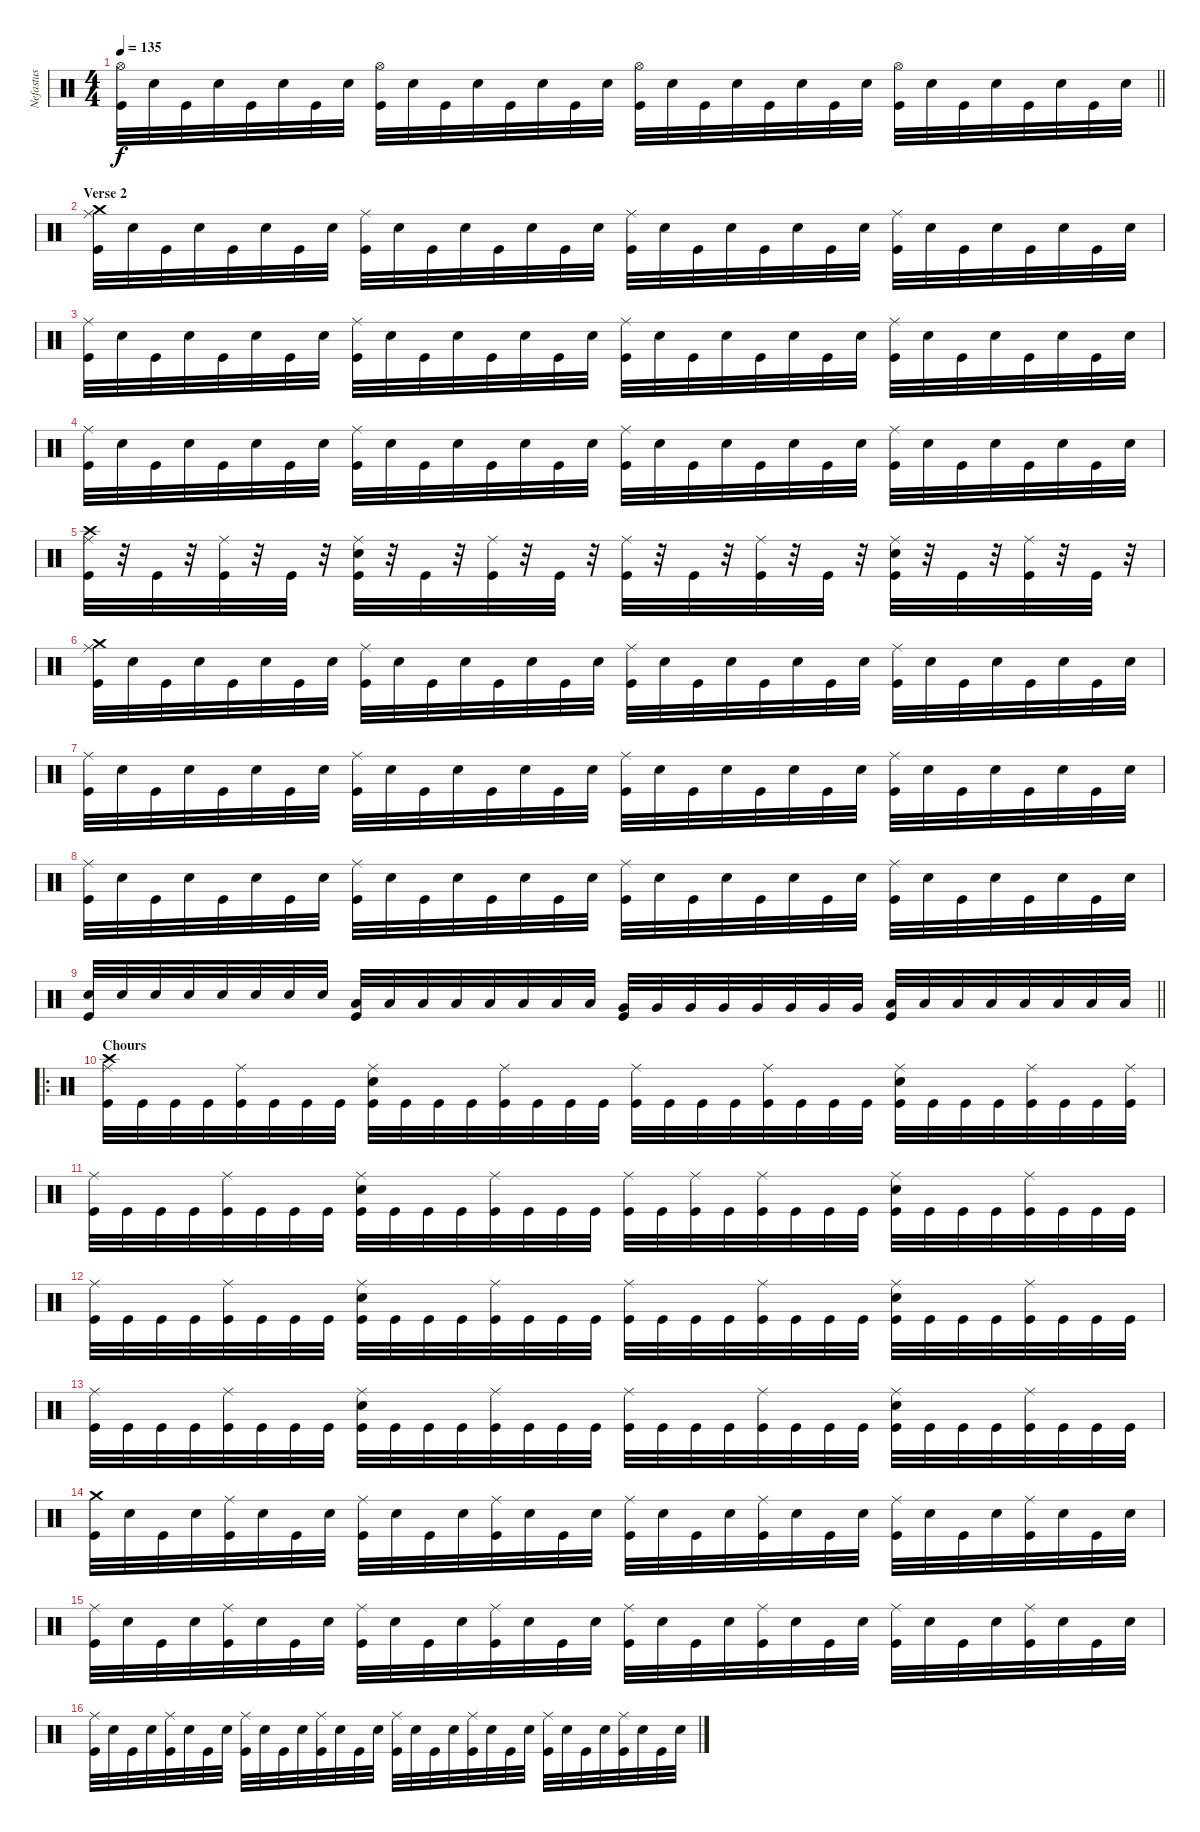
\track ("Nefastus" "Nefastus") {instrument percussion}
\staff {score}
\articulation defaults
\ts (4 4)
\tempo 135
\clef neutral
\barLineRight lightlight
\ks c
("Hi-Hat (open)" "Kick (hit)").32{dy f} "Electric Snare (hit)".32 "Kick (hit)".32 "Electric Snare (hit)".32 "Kick (hit)".32 "Electric Snare (hit)".32 "Kick (hit)".32 "Electric Snare (hit)".32 ("Hi-Hat (open)" "Kick (hit)").32 "Electric Snare (hit)".32 "Kick (hit)".32 "Electric Snare (hit)".32 "Kick (hit)".32 "Electric Snare (hit)".32 "Kick (hit)".32 "Electric Snare (hit)".32 ("Hi-Hat (open)" "Kick (hit)").32 "Electric Snare (hit)".32 "Kick (hit)".32 "Electric Snare (hit)".32 "Kick (hit)".32 "Electric Snare (hit)".32 "Kick (hit)".32 "Electric Snare (hit)".32 ("Hi-Hat (open)" "Kick (hit)").32 "Electric Snare (hit)".32 "Kick (hit)".32 "Electric Snare (hit)".32 "Kick (hit)".32 "Electric Snare (hit)".32 "Kick (hit)".32 "Electric Snare (hit)".32 |
\section ("" "Verse 2")
("Crash medium (hit)" "Ride (middle)" "Kick (hit)").32 "Electric Snare (hit)".32 "Kick (hit)".32 "Electric Snare (hit)".32 "Kick (hit)".32 "Electric Snare (hit)".32 "Kick (hit)".32 "Electric Snare (hit)".32 ("Ride (middle)" "Kick (hit)").32 "Electric Snare (hit)".32 "Kick (hit)".32 "Electric Snare (hit)".32 "Kick (hit)".32 "Electric Snare (hit)".32 "Kick (hit)".32 "Electric Snare (hit)".32 ("Ride (middle)" "Kick (hit)").32 "Electric Snare (hit)".32 "Kick (hit)".32 "Electric Snare (hit)".32 "Kick (hit)".32 "Electric Snare (hit)".32 "Kick (hit)".32 "Electric Snare (hit)".32 ("Ride (middle)" "Kick (hit)").32 "Electric Snare (hit)".32 "Kick (hit)".32 "Electric Snare (hit)".32 "Kick (hit)".32 "Electric Snare (hit)".32 "Kick (hit)".32 "Electric Snare (hit)".32 |
("Ride (middle)" "Kick (hit)").32 "Electric Snare (hit)".32 "Kick (hit)".32 "Electric Snare (hit)".32 "Kick (hit)".32 "Electric Snare (hit)".32 "Kick (hit)".32 "Electric Snare (hit)".32 ("Ride (middle)" "Kick (hit)").32 "Electric Snare (hit)".32 "Kick (hit)".32 "Electric Snare (hit)".32 "Kick (hit)".32 "Electric Snare (hit)".32 "Kick (hit)".32 "Electric Snare (hit)".32 ("Ride (middle)" "Kick (hit)").32 "Electric Snare (hit)".32 "Kick (hit)".32 "Electric Snare (hit)".32 "Kick (hit)".32 "Electric Snare (hit)".32 "Kick (hit)".32 "Electric Snare (hit)".32 ("Ride (middle)" "Kick (hit)").32 "Electric Snare (hit)".32 "Kick (hit)".32 "Electric Snare (hit)".32 "Kick (hit)".32 "Electric Snare (hit)".32 "Kick (hit)".32 "Electric Snare (hit)".32 |
("Ride (middle)" "Kick (hit)").32 "Electric Snare (hit)".32 "Kick (hit)".32 "Electric Snare (hit)".32 "Kick (hit)".32 "Electric Snare (hit)".32 "Kick (hit)".32 "Electric Snare (hit)".32 ("Ride (middle)" "Kick (hit)").32 "Electric Snare (hit)".32 "Kick (hit)".32 "Electric Snare (hit)".32 "Kick (hit)".32 "Electric Snare (hit)".32 "Kick (hit)".32 "Electric Snare (hit)".32 ("Ride (middle)" "Kick (hit)").32 "Electric Snare (hit)".32 "Kick (hit)".32 "Electric Snare (hit)".32 "Kick (hit)".32 "Electric Snare (hit)".32 "Kick (hit)".32 "Electric Snare (hit)".32 ("Ride (middle)" "Kick (hit)").32 "Electric Snare (hit)".32 "Kick (hit)".32 "Electric Snare (hit)".32 "Kick (hit)".32 "Electric Snare (hit)".32 "Kick (hit)".32 "Electric Snare (hit)".32 |
("Crash high (hit)" "Ride (middle)" "Kick (hit)").32 r.32 "Kick (hit)".32 r.32 ("Ride (middle)" "Kick (hit)").32 r.32 "Kick (hit)".32 r.32 ("Electric Snare (hit)" "Ride (middle)" "Kick (hit)").32 r.32 "Kick (hit)".32 r.32 ("Ride (middle)" "Kick (hit)").32 r.32 "Kick (hit)".32 r.32 ("Ride (middle)" "Kick (hit)").32 r.32 "Kick (hit)".32 r.32 ("Ride (middle)" "Kick (hit)").32 r.32 "Kick (hit)".32 r.32 ("Electric Snare (hit)" "Ride (middle)" "Kick (hit)").32 r.32 "Kick (hit)".32 r.32 ("Ride (middle)" "Kick (hit)").32 r.32 "Kick (hit)".32 r.32 |
("Crash medium (hit)" "Ride (middle)" "Kick (hit)").32 "Electric Snare (hit)".32 "Kick (hit)".32 "Electric Snare (hit)".32 "Kick (hit)".32 "Electric Snare (hit)".32 "Kick (hit)".32 "Electric Snare (hit)".32 ("Ride (middle)" "Kick (hit)").32 "Electric Snare (hit)".32 "Kick (hit)".32 "Electric Snare (hit)".32 "Kick (hit)".32 "Electric Snare (hit)".32 "Kick (hit)".32 "Electric Snare (hit)".32 ("Ride (middle)" "Kick (hit)").32 "Electric Snare (hit)".32 "Kick (hit)".32 "Electric Snare (hit)".32 "Kick (hit)".32 "Electric Snare (hit)".32 "Kick (hit)".32 "Electric Snare (hit)".32 ("Ride (middle)" "Kick (hit)").32 "Electric Snare (hit)".32 "Kick (hit)".32 "Electric Snare (hit)".32 "Kick (hit)".32 "Electric Snare (hit)".32 "Kick (hit)".32 "Electric Snare (hit)".32 |
("Ride (middle)" "Kick (hit)").32 "Electric Snare (hit)".32 "Kick (hit)".32 "Electric Snare (hit)".32 "Kick (hit)".32 "Electric Snare (hit)".32 "Kick (hit)".32 "Electric Snare (hit)".32 ("Ride (middle)" "Kick (hit)").32 "Electric Snare (hit)".32 "Kick (hit)".32 "Electric Snare (hit)".32 "Kick (hit)".32 "Electric Snare (hit)".32 "Kick (hit)".32 "Electric Snare (hit)".32 ("Ride (middle)" "Kick (hit)").32 "Electric Snare (hit)".32 "Kick (hit)".32 "Electric Snare (hit)".32 "Kick (hit)".32 "Electric Snare (hit)".32 "Kick (hit)".32 "Electric Snare (hit)".32 ("Ride (middle)" "Kick (hit)").32 "Electric Snare (hit)".32 "Kick (hit)".32 "Electric Snare (hit)".32 "Kick (hit)".32 "Electric Snare (hit)".32 "Kick (hit)".32 "Electric Snare (hit)".32 |
("Ride (middle)" "Kick (hit)").32 "Electric Snare (hit)".32 "Kick (hit)".32 "Electric Snare (hit)".32 "Kick (hit)".32 "Electric Snare (hit)".32 "Kick (hit)".32 "Electric Snare (hit)".32 ("Ride (middle)" "Kick (hit)").32 "Electric Snare (hit)".32 "Kick (hit)".32 "Electric Snare (hit)".32 "Kick (hit)".32 "Electric Snare (hit)".32 "Kick (hit)".32 "Electric Snare (hit)".32 ("Ride (middle)" "Kick (hit)").32 "Electric Snare (hit)".32 "Kick (hit)".32 "Electric Snare (hit)".32 "Kick (hit)".32 "Electric Snare (hit)".32 "Kick (hit)".32 "Electric Snare (hit)".32 ("Ride (middle)" "Kick (hit)").32 "Electric Snare (hit)".32 "Kick (hit)".32 "Electric Snare (hit)".32 "Kick (hit)".32 "Electric Snare (hit)".32 "Kick (hit)".32 "Electric Snare (hit)".32 |
\barLineRight lightlight
("Electric Snare (hit)" "Kick (hit)").32 "Electric Snare (hit)".32 "Electric Snare (hit)".32 "Electric Snare (hit)".32 "Electric Snare (hit)".32 "Electric Snare (hit)".32 "Electric Snare (hit)".32 "Electric Snare (hit)".32 ("Low Tom (hit)" "Kick (hit)").32 "Low Tom (hit)".32 "Low Tom (hit)".32 "Low Tom (hit)".32 "Low Tom (hit)".32 "Low Tom (hit)".32 "Low Tom (hit)".32 "Low Tom (hit)".32 ("Very Low Tom (hit)" "Kick (hit)").32 "Very Low Tom (hit)".32 "Very Low Tom (hit)".32 "Very Low Tom (hit)".32 "Very Low Tom (hit)".32 "Very Low Tom (hit)".32 "Very Low Tom (hit)".32 "Very Low Tom (hit)".32 ("Low Floor Tom (hit)" "Kick (hit)").32 "Low Floor Tom (hit)".32 "Low Floor Tom (hit)".32 "Low Floor Tom (hit)".32 "Low Floor Tom (hit)".32 "Low Floor Tom (hit)".32 "Low Floor Tom (hit)".32 "Low Floor Tom (hit)".32 |
\ro
\section ("" "Chours")
("Crash high (hit)" "Ride (middle)" "Kick (hit)").32 "Kick (hit)".32 "Kick (hit)".32 "Kick (hit)".32 ("Ride (middle)" "Kick (hit)").32 "Kick (hit)".32 "Kick (hit)".32 "Kick (hit)".32 ("Electric Snare (hit)" "Ride (middle)" "Kick (hit)").32 "Kick (hit)".32 "Kick (hit)".32 "Kick (hit)".32 ("Ride (middle)" "Kick (hit)").32 "Kick (hit)".32 "Kick (hit)".32 "Kick (hit)".32 ("Ride (middle)" "Kick (hit)").32 "Kick (hit)".32 "Kick (hit)".32 "Kick (hit)".32 ("Ride (middle)" "Kick (hit)").32 "Kick (hit)".32 "Kick (hit)".32 "Kick (hit)".32 ("Electric Snare (hit)" "Ride (middle)" "Kick (hit)").32 "Kick (hit)".32 "Kick (hit)".32 "Kick (hit)".32 ("Ride (middle)" "Kick (hit)").32 "Kick (hit)".32 "Kick (hit)".32 ("Ride (middle)" "Kick (hit)").32 |
("Ride (middle)" "Kick (hit)").32 "Kick (hit)".32 "Kick (hit)".32 "Kick (hit)".32 ("Ride (middle)" "Kick (hit)").32 "Kick (hit)".32 "Kick (hit)".32 "Kick (hit)".32 ("Electric Snare (hit)" "Ride (middle)" "Kick (hit)").32 "Kick (hit)".32 "Kick (hit)".32 "Kick (hit)".32 ("Ride (middle)" "Kick (hit)").32 "Kick (hit)".32 "Kick (hit)".32 "Kick (hit)".32 ("Ride (middle)" "Kick (hit)").32 "Kick (hit)".32 ("Ride (middle)" "Kick (hit)").32 "Kick (hit)".32 ("Ride (middle)" "Kick (hit)").32 "Kick (hit)".32 "Kick (hit)".32 "Kick (hit)".32 ("Electric Snare (hit)" "Ride (middle)" "Kick (hit)").32 "Kick (hit)".32 "Kick (hit)".32 "Kick (hit)".32 ("Ride (middle)" "Kick (hit)").32 "Kick (hit)".32 "Kick (hit)".32 "Kick (hit)".32 |
("Ride (middle)" "Kick (hit)").32 "Kick (hit)".32 "Kick (hit)".32 "Kick (hit)".32 ("Ride (middle)" "Kick (hit)").32 "Kick (hit)".32 "Kick (hit)".32 "Kick (hit)".32 ("Electric Snare (hit)" "Ride (middle)" "Kick (hit)").32 "Kick (hit)".32 "Kick (hit)".32 "Kick (hit)".32 ("Ride (middle)" "Kick (hit)").32 "Kick (hit)".32 "Kick (hit)".32 "Kick (hit)".32 ("Ride (middle)" "Kick (hit)").32 "Kick (hit)".32 "Kick (hit)".32 "Kick (hit)".32 ("Ride (middle)" "Kick (hit)").32 "Kick (hit)".32 "Kick (hit)".32 "Kick (hit)".32 ("Electric Snare (hit)" "Ride (middle)" "Kick (hit)").32 "Kick (hit)".32 "Kick (hit)".32 "Kick (hit)".32 ("Ride (middle)" "Kick (hit)").32 "Kick (hit)".32 "Kick (hit)".32 "Kick (hit)".32 |
("Ride (middle)" "Kick (hit)").32 "Kick (hit)".32 "Kick (hit)".32 "Kick (hit)".32 ("Ride (middle)" "Kick (hit)").32 "Kick (hit)".32 "Kick (hit)".32 "Kick (hit)".32 ("Electric Snare (hit)" "Ride (middle)" "Kick (hit)").32 "Kick (hit)".32 "Kick (hit)".32 "Kick (hit)".32 ("Ride (middle)" "Kick (hit)").32 "Kick (hit)".32 "Kick (hit)".32 "Kick (hit)".32 ("Ride (middle)" "Kick (hit)").32 "Kick (hit)".32 "Kick (hit)".32 "Kick (hit)".32 ("Ride (middle)" "Kick (hit)").32 "Kick (hit)".32 "Kick (hit)".32 "Kick (hit)".32 ("Electric Snare (hit)" "Ride (middle)" "Kick (hit)").32 "Kick (hit)".32 "Kick (hit)".32 "Kick (hit)".32 ("Ride (middle)" "Kick (hit)").32 "Kick (hit)".32 "Kick (hit)".32 "Kick (hit)".32 |
("Crash medium (hit)" "Kick (hit)").32 "Electric Snare (hit)".32 "Kick (hit)".32 "Electric Snare (hit)".32 ("Ride (middle)" "Kick (hit)").32 "Electric Snare (hit)".32 "Kick (hit)".32 "Electric Snare (hit)".32 ("Ride (middle)" "Kick (hit)").32 "Electric Snare (hit)".32 "Kick (hit)".32 "Electric Snare (hit)".32 ("Ride (middle)" "Kick (hit)").32 "Electric Snare (hit)".32 "Kick (hit)".32 "Electric Snare (hit)".32 ("Ride (middle)" "Kick (hit)").32 "Electric Snare (hit)".32 "Kick (hit)".32 "Electric Snare (hit)".32 ("Ride (middle)" "Kick (hit)").32 "Electric Snare (hit)".32 "Kick (hit)".32 "Electric Snare (hit)".32 ("Ride (middle)" "Kick (hit)").32 "Electric Snare (hit)".32 "Kick (hit)".32 "Electric Snare (hit)".32 ("Ride (middle)" "Kick (hit)").32 "Electric Snare (hit)".32 "Kick (hit)".32 "Electric Snare (hit)".32 |
("Ride (middle)" "Kick (hit)").32 "Electric Snare (hit)".32 "Kick (hit)".32 "Electric Snare (hit)".32 ("Ride (middle)" "Kick (hit)").32 "Electric Snare (hit)".32 "Kick (hit)".32 "Electric Snare (hit)".32 ("Ride (middle)" "Kick (hit)").32 "Electric Snare (hit)".32 "Kick (hit)".32 "Electric Snare (hit)".32 ("Ride (middle)" "Kick (hit)").32 "Electric Snare (hit)".32 "Kick (hit)".32 "Electric Snare (hit)".32 ("Ride (middle)" "Kick (hit)").32 "Electric Snare (hit)".32 "Kick (hit)".32 "Electric Snare (hit)".32 ("Ride (middle)" "Kick (hit)").32 "Electric Snare (hit)".32 "Kick (hit)".32 "Electric Snare (hit)".32 ("Ride (middle)" "Kick (hit)").32 "Electric Snare (hit)".32 "Kick (hit)".32 "Electric Snare (hit)".32 ("Ride (middle)" "Kick (hit)").32 "Electric Snare (hit)".32 "Kick (hit)".32 "Electric Snare (hit)".32 |
("Ride (middle)" "Kick (hit)").32 "Electric Snare (hit)".32 "Kick (hit)".32 "Electric Snare (hit)".32 ("Ride (middle)" "Kick (hit)").32 "Electric Snare (hit)".32 "Kick (hit)".32 "Electric Snare (hit)".32 ("Ride (middle)" "Kick (hit)").32 "Electric Snare (hit)".32 "Kick (hit)".32 "Electric Snare (hit)".32 ("Ride (middle)" "Kick (hit)").32 "Electric Snare (hit)".32 "Kick (hit)".32 "Electric Snare (hit)".32 ("Ride (middle)" "Kick (hit)").32 "Electric Snare (hit)".32 "Kick (hit)".32 "Electric Snare (hit)".32 ("Ride (middle)" "Kick (hit)").32 "Electric Snare (hit)".32 "Kick (hit)".32 "Electric Snare (hit)".32 ("Ride (middle)" "Kick (hit)").32 "Electric Snare (hit)".32 "Kick (hit)".32 "Electric Snare (hit)".32 ("Ride (middle)" "Kick (hit)").32 "Electric Snare (hit)".32 "Kick (hit)".32 "Electric Snare (hit)".32
